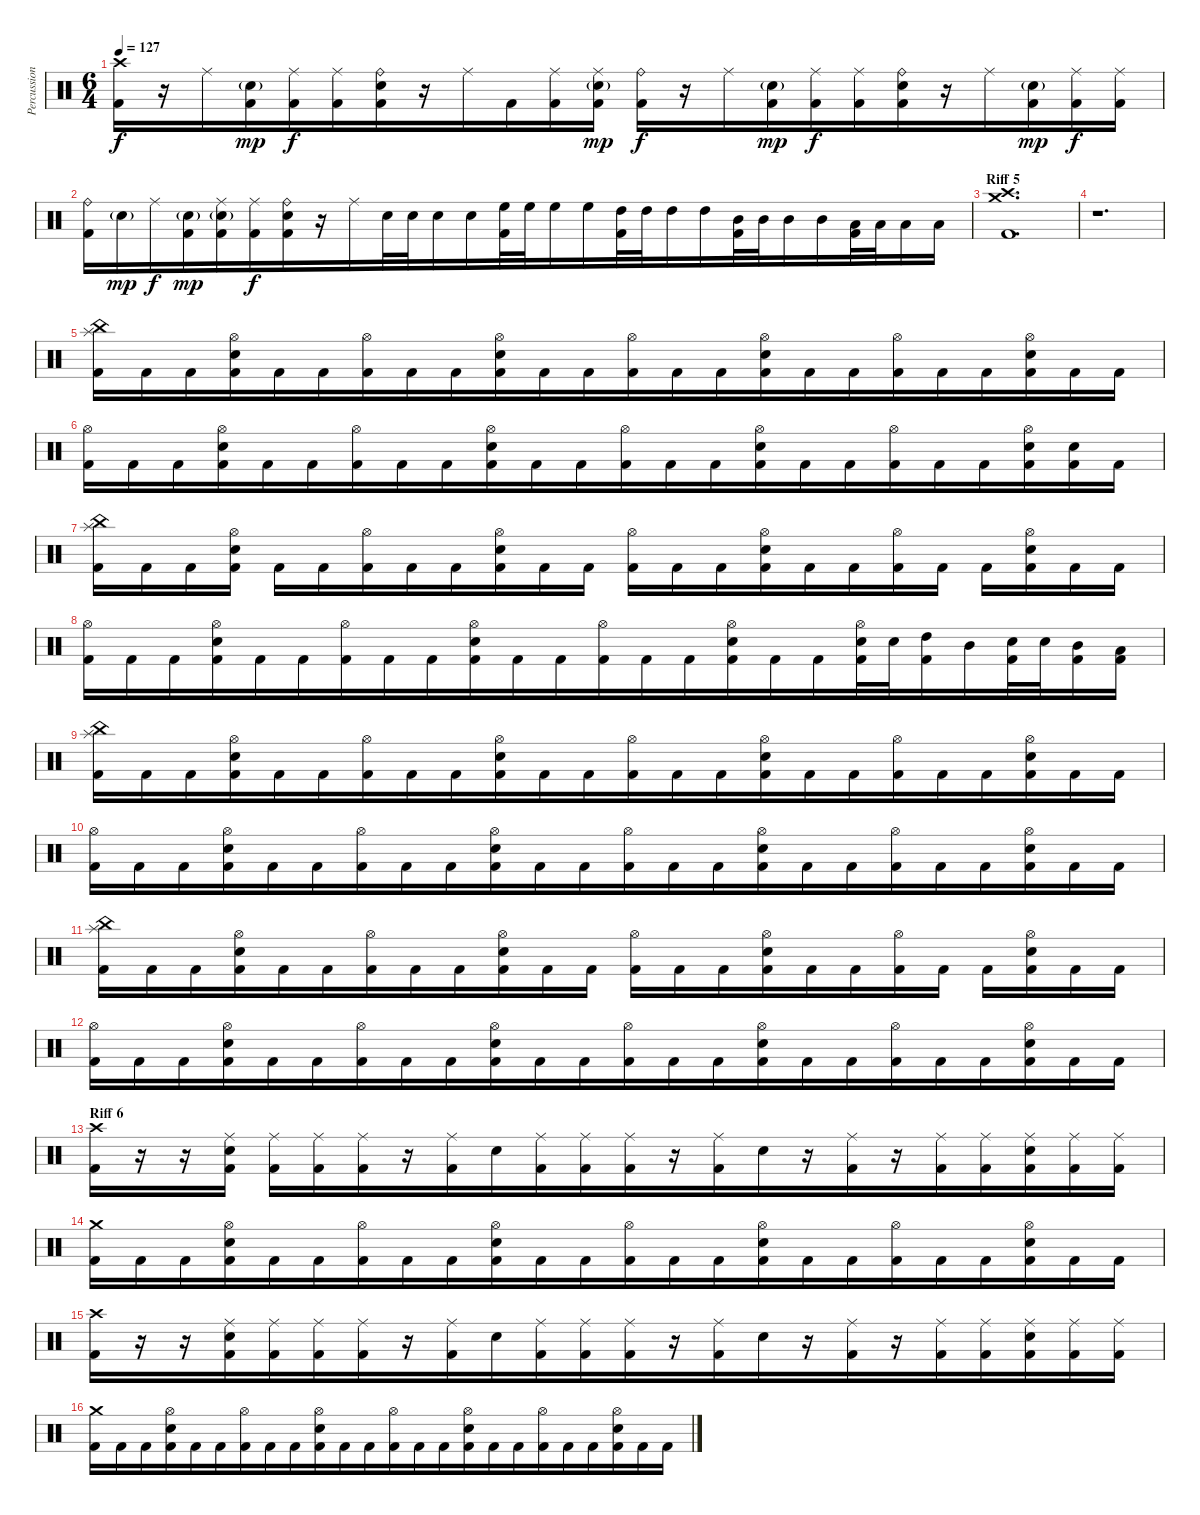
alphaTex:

\track ("Percussion" "Percussion") {instrument percussion}
\staff {score}
\articulation defaults
\ts (6 4)
\tempo 127
\clef neutral
\ks c
("Crash high (hit)" "Kick (hit) 2").16{dy f} r.16{beam merge} "Ride (middle)".16{beam merge} ("Electric Snare (hit)"{g} "Kick (hit) 2").16{dy mp beam merge} ("Ride (middle)" "Kick (hit) 2").16{dy f beam merge} ("Ride (middle)" "Kick (hit) 2").16{beam merge} ("Ride (bell)" "Electric Snare (hit)" "Kick (hit) 2").16{beam merge} r.16{beam merge} "Ride (middle)".16 "Kick (hit) 2".16{beam merge} ("Ride (middle)" "Kick (hit) 2").16{beam merge} ("Ride (middle)" "Electric Snare (hit)"{g} "Kick (hit) 2").16{dy mp} ("Ride (bell)" "Kick (hit) 2").16{dy f beam merge} r.16{beam merge} "Ride (middle)".16{beam merge} ("Electric Snare (hit)"{g} "Kick (hit) 2").16{dy mp beam merge} ("Ride (middle)" "Kick (hit) 2").16{dy f beam merge} ("Ride (middle)" "Kick (hit) 2").16{beam merge} ("Ride (bell)" "Electric Snare (hit)" "Kick (hit) 2").16{beam merge} r.16 "Ride (middle)".16{beam merge} ("Electric Snare (hit)"{g} "Kick (hit) 2").16{dy mp beam merge} ("Ride (middle)" "Kick (hit) 2").16{dy f beam merge} ("Ride (middle)" "Kick (hit) 2").16 |
("Ride (bell)" "Kick (hit) 2").16{beam merge} "Electric Snare (hit)"{g}.16{dy mp beam merge} "Ride (middle)".16{dy f beam merge} ("Electric Snare (hit)"{g} "Kick (hit) 2").16{dy mp beam merge} ("Ride (middle)" "Electric Snare (hit)"{g} "Kick (hit) 2").16{beam merge} ("Ride (middle)" "Kick (hit) 2").16{dy f beam merge} ("Ride (bell)" "Electric Snare (hit)" "Kick (hit) 2").16{beam merge} r.16{beam merge} "Ride (middle)".16{beam merge} "Electric Snare (hit)".32{beam merge} "Electric Snare (hit)".32{beam merge} "Electric Snare (hit)".16{beam merge} "Electric Snare (hit)".16{beam merge} ("High Floor Tom (hit)" "Kick (hit) 2").32{beam merge} "High Floor Tom (hit)".32{beam merge} "High Floor Tom (hit)".16{beam merge} "High Floor Tom (hit)".16{beam merge} ("High Tom (hit)" "Kick (hit) 2").32{beam merge} "High Tom (hit)".32{beam merge} "High Tom (hit)".16{beam merge} "High Tom (hit)".16{beam merge} ("Mid Tom (hit)" "Kick (hit) 2").32 "Mid Tom (hit)".32{beam merge} "Mid Tom (hit)".16{beam merge} "Mid Tom (hit)".16{beam merge} ("Low Tom (hit)" "Kick (hit) 2").32{beam merge} "Low Tom (hit)".32 "Low Floor Tom (hit)".16{beam merge} "Low Floor Tom (hit)".16 |
\section ("" "Riff 5")
("Crash medium (hit)" "Crash high (hit)" "Kick (hit) 2").1{d} |
r.1{d} |
("China (hit)" "Splash (hit)" "Kick (hit) 2").16{beam merge} "Kick (hit) 2".16{beam merge} "Kick (hit) 2".16{beam merge} ("Hi-Hat (open)" "Electric Snare (hit)" "Kick (hit) 2").16{beam merge} "Kick (hit) 2".16{beam merge} "Kick (hit) 2".16{beam merge} ("Hi-Hat (open)" "Kick (hit) 2").16{beam merge} "Kick (hit) 2".16{beam merge} "Kick (hit) 2".16{beam merge} ("Hi-Hat (open)" "Electric Snare (hit)" "Kick (hit) 2").16{beam merge} "Kick (hit) 2".16{beam merge} "Kick (hit) 2".16{beam merge} ("Hi-Hat (open)" "Kick (hit) 2").16{beam merge} "Kick (hit) 2".16{beam merge} "Kick (hit) 2".16{beam merge} ("Hi-Hat (open)" "Electric Snare (hit)" "Kick (hit) 2").16{beam merge} "Kick (hit) 2".16{beam merge} "Kick (hit) 2".16{beam merge} ("Hi-Hat (open)" "Kick (hit) 2").16{beam merge} "Kick (hit) 2".16{beam merge} "Kick (hit) 2".16{beam merge} ("Hi-Hat (open)" "Electric Snare (hit)" "Kick (hit) 2").16{beam merge} "Kick (hit) 2".16{beam merge} "Kick (hit) 2".16 |
("Hi-Hat (open)" "Kick (hit) 2").16{beam merge} "Kick (hit) 2".16{beam merge} "Kick (hit) 2".16{beam merge} ("Hi-Hat (open)" "Electric Snare (hit)" "Kick (hit) 2").16{beam merge} "Kick (hit) 2".16{beam merge} "Kick (hit) 2".16{beam merge} ("Hi-Hat (open)" "Kick (hit) 2").16{beam merge} "Kick (hit) 2".16{beam merge} "Kick (hit) 2".16 ("Hi-Hat (open)" "Electric Snare (hit)" "Kick (hit) 2").16{beam merge} "Kick (hit) 2".16{beam merge} "Kick (hit) 2".16{beam merge} ("Hi-Hat (open)" "Kick (hit) 2").16{beam merge} "Kick (hit) 2".16{beam merge} "Kick (hit) 2".16{beam merge} ("Hi-Hat (open)" "Electric Snare (hit)" "Kick (hit) 2").16{beam merge} "Kick (hit) 2".16 "Kick (hit) 2".16{beam merge} ("Hi-Hat (open)" "Kick (hit) 2").16{beam merge} "Kick (hit) 2".16{beam merge} "Kick (hit) 2".16{beam merge} ("Hi-Hat (open)" "Electric Snare (hit)" "Kick (hit) 2").16{beam merge} ("Electric Snare (hit)" "Kick (hit) 2").16{beam merge} "Kick (hit) 2".16 |
("China (hit)" "Splash (hit)" "Kick (hit) 2").16 "Kick (hit) 2".16 "Kick (hit) 2".16{beam merge} ("Hi-Hat (open)" "Electric Snare (hit)" "Kick (hit) 2").16 "Kick (hit) 2".16{beam merge} "Kick (hit) 2".16 ("Hi-Hat (open)" "Kick (hit) 2").16 "Kick (hit) 2".16{beam merge} "Kick (hit) 2".16 ("Hi-Hat (open)" "Electric Snare (hit)" "Kick (hit) 2").16 "Kick (hit) 2".16{beam merge} "Kick (hit) 2".16 ("Hi-Hat (open)" "Kick (hit) 2").16{beam merge} "Kick (hit) 2".16 "Kick (hit) 2".16 ("Hi-Hat (open)" "Electric Snare (hit)" "Kick (hit) 2").16{beam merge} "Kick (hit) 2".16 "Kick (hit) 2".16 ("Hi-Hat (open)" "Kick (hit) 2").16{beam merge} "Kick (hit) 2".16 "Kick (hit) 2".16{beam merge} ("Hi-Hat (open)" "Electric Snare (hit)" "Kick (hit) 2").16 "Kick (hit) 2".16 "Kick (hit) 2".16 |
("Hi-Hat (open)" "Kick (hit) 2").16{beam merge} "Kick (hit) 2".16{beam merge} "Kick (hit) 2".16{beam merge} ("Hi-Hat (open)" "Electric Snare (hit)" "Kick (hit) 2").16{beam merge} "Kick (hit) 2".16{beam merge} "Kick (hit) 2".16{beam merge} ("Hi-Hat (open)" "Kick (hit) 2").16{beam merge} "Kick (hit) 2".16{beam merge} "Kick (hit) 2".16{beam merge} ("Hi-Hat (open)" "Electric Snare (hit)" "Kick (hit) 2").16{beam merge} "Kick (hit) 2".16{beam merge} "Kick (hit) 2".16{beam merge} ("Hi-Hat (open)" "Kick (hit) 2").16{beam merge} "Kick (hit) 2".16{beam merge} "Kick (hit) 2".16 ("Hi-Hat (open)" "Electric Snare (hit)" "Kick (hit) 2").16{beam merge} "Kick (hit) 2".16{beam merge} "Kick (hit) 2".16{beam merge} ("Hi-Hat (open)" "Electric Snare (hit)" "Kick (hit) 2").32{beam merge} "Electric Snare (hit)".32{beam merge} ("High Tom (hit)" "Kick (hit) 2").16{beam merge} "Mid Tom (hit)".16{beam merge} ("Electric Snare (hit)" "Kick (hit) 2").32 "Electric Snare (hit)".32{beam merge} ("Mid Tom (hit)" "Kick (hit) 2").16{beam merge} ("Low Tom (hit)" "Kick (hit) 2").16 |
("China (hit)" "Splash (hit)" "Kick (hit) 2").16 "Kick (hit) 2".16{beam merge} "Kick (hit) 2".16{beam merge} ("Hi-Hat (open)" "Electric Snare (hit)" "Kick (hit) 2").16{beam merge} "Kick (hit) 2".16{beam merge} "Kick (hit) 2".16{beam merge} ("Hi-Hat (open)" "Kick (hit) 2").16{beam merge} "Kick (hit) 2".16{beam merge} "Kick (hit) 2".16{beam merge} ("Hi-Hat (open)" "Electric Snare (hit)" "Kick (hit) 2").16{beam merge} "Kick (hit) 2".16{beam merge} "Kick (hit) 2".16{beam merge} ("Hi-Hat (open)" "Kick (hit) 2").16{beam merge} "Kick (hit) 2".16{beam merge} "Kick (hit) 2".16{beam merge} ("Hi-Hat (open)" "Electric Snare (hit)" "Kick (hit) 2").16{beam merge} "Kick (hit) 2".16{beam merge} "Kick (hit) 2".16{beam merge} ("Hi-Hat (open)" "Kick (hit) 2").16{beam merge} "Kick (hit) 2".16{beam merge} "Kick (hit) 2".16{beam merge} ("Hi-Hat (open)" "Electric Snare (hit)" "Kick (hit) 2").16{beam merge} "Kick (hit) 2".16{beam merge} "Kick (hit) 2".16 |
("Hi-Hat (open)" "Kick (hit) 2").16{beam merge} "Kick (hit) 2".16{beam merge} "Kick (hit) 2".16{beam merge} ("Hi-Hat (open)" "Electric Snare (hit)" "Kick (hit) 2").16{beam merge} "Kick (hit) 2".16{beam merge} "Kick (hit) 2".16 ("Hi-Hat (open)" "Kick (hit) 2").16{beam merge} "Kick (hit) 2".16{beam merge} "Kick (hit) 2".16{beam merge} ("Hi-Hat (open)" "Electric Snare (hit)" "Kick (hit) 2").16{beam merge} "Kick (hit) 2".16{beam merge} "Kick (hit) 2".16{beam merge} ("Hi-Hat (open)" "Kick (hit) 2").16{beam merge} "Kick (hit) 2".16{beam merge} "Kick (hit) 2".16{beam merge} ("Hi-Hat (open)" "Electric Snare (hit)" "Kick (hit) 2").16{beam merge} "Kick (hit) 2".16{beam merge} "Kick (hit) 2".16{beam merge} ("Hi-Hat (open)" "Kick (hit) 2").16{beam merge} "Kick (hit) 2".16{beam merge} "Kick (hit) 2".16{beam merge} ("Hi-Hat (open)" "Electric Snare (hit)" "Kick (hit) 2").16 "Kick (hit) 2".16{beam merge} "Kick (hit) 2".16 |
("China (hit)" "Splash (hit)" "Kick (hit) 2").16{beam merge} "Kick (hit) 2".16 "Kick (hit) 2".16{beam merge} ("Hi-Hat (open)" "Electric Snare (hit)" "Kick (hit) 2").16{beam merge} "Kick (hit) 2".16{beam merge} "Kick (hit) 2".16{beam merge} ("Hi-Hat (open)" "Kick (hit) 2").16{beam merge} "Kick (hit) 2".16{beam merge} "Kick (hit) 2".16 ("Hi-Hat (open)" "Electric Snare (hit)" "Kick (hit) 2").16{beam merge} "Kick (hit) 2".16{beam merge} "Kick (hit) 2".16 ("Hi-Hat (open)" "Kick (hit) 2").16{beam merge} "Kick (hit) 2".16{beam merge} "Kick (hit) 2".16{beam merge} ("Hi-Hat (open)" "Electric Snare (hit)" "Kick (hit) 2").16{beam merge} "Kick (hit) 2".16{beam merge} "Kick (hit) 2".16{beam merge} ("Hi-Hat (open)" "Kick (hit) 2").16{beam merge} "Kick (hit) 2".16 "Kick (hit) 2".16{beam merge} ("Hi-Hat (open)" "Electric Snare (hit)" "Kick (hit) 2").16{beam merge} "Kick (hit) 2".16 "Kick (hit) 2".16 |
("Hi-Hat (open)" "Kick (hit) 2").16{beam merge} "Kick (hit) 2".16 "Kick (hit) 2".16{beam merge} ("Hi-Hat (open)" "Electric Snare (hit)" "Kick (hit) 2").16{beam merge} "Kick (hit) 2".16{beam merge} "Kick (hit) 2".16{beam merge} ("Hi-Hat (open)" "Kick (hit) 2").16{beam merge} "Kick (hit) 2".16{beam merge} "Kick (hit) 2".16{beam merge} ("Hi-Hat (open)" "Electric Snare (hit)" "Kick (hit) 2").16 "Kick (hit) 2".16{beam merge} "Kick (hit) 2".16{beam merge} ("Hi-Hat (open)" "Kick (hit) 2").16{beam merge} "Kick (hit) 2".16{beam merge} "Kick (hit) 2".16{beam merge} ("Hi-Hat (open)" "Electric Snare (hit)" "Kick (hit) 2").16{beam merge} "Kick (hit) 2".16{beam merge} "Kick (hit) 2".16{beam merge} ("Hi-Hat (open)" "Kick (hit) 2").16{beam merge} "Kick (hit) 2".16{beam merge} "Kick (hit) 2".16{beam merge} ("Hi-Hat (open)" "Electric Snare (hit)" "Kick (hit) 2").16{beam merge} "Kick (hit) 2".16{beam merge} "Kick (hit) 2".16 |
\section ("" "Riff 6")
("Crash high (hit)" "Kick (hit) 2").16{beam merge} r.16{beam merge} r.16{beam merge} ("Ride (middle)" "Electric Snare (hit)" "Kick (hit) 2").16 ("Ride (middle)" "Kick (hit) 2").16{beam merge} ("Ride (middle)" "Kick (hit) 2").16{beam merge} ("Ride (middle)" "Kick (hit) 2").16{beam merge} r.16{beam merge} ("Ride (middle)" "Kick (hit) 2").16{beam merge} "Electric Snare (hit)".16{beam merge} ("Ride (middle)" "Kick (hit) 2").16{beam merge} ("Ride (middle)" "Kick (hit) 2").16{beam merge} ("Ride (middle)" "Kick (hit) 2").16{beam merge} r.16{beam merge} ("Ride (middle)" "Kick (hit) 2").16{beam merge} "Electric Snare (hit)".16{beam merge} r.16{beam merge} ("Ride (middle)" "Kick (hit) 2").16{beam merge} r.16{beam merge} ("Ride (middle)" "Kick (hit) 2").16{beam merge} ("Ride (middle)" "Kick (hit) 2").16{beam merge} ("Ride (middle)" "Electric Snare (hit)" "Kick (hit) 2").16{beam merge} ("Ride (middle)" "Kick (hit) 2").16{beam merge} ("Ride (middle)" "Kick (hit) 2").16 |
("Crash medium (hit)" "Kick (hit) 2").16{beam merge} "Kick (hit) 2".16{beam merge} "Kick (hit) 2".16{beam merge} ("Hi-Hat (open)" "Electric Snare (hit)" "Kick (hit) 2").16{beam merge} "Kick (hit) 2".16{beam merge} "Kick (hit) 2".16{beam merge} ("Hi-Hat (open)" "Kick (hit) 2").16{beam merge} "Kick (hit) 2".16{beam merge} "Kick (hit) 2".16 ("Hi-Hat (open)" "Electric Snare (hit)" "Kick (hit) 2").16{beam merge} "Kick (hit) 2".16{beam merge} "Kick (hit) 2".16{beam merge} ("Hi-Hat (open)" "Kick (hit) 2").16{beam merge} "Kick (hit) 2".16{beam merge} "Kick (hit) 2".16{beam merge} ("Hi-Hat (open)" "Electric Snare (hit)" "Kick (hit) 2").16{beam merge} "Kick (hit) 2".16{beam merge} "Kick (hit) 2".16{beam merge} ("Hi-Hat (open)" "Kick (hit) 2").16{beam merge} "Kick (hit) 2".16{beam merge} "Kick (hit) 2".16{beam merge} ("Hi-Hat (open)" "Electric Snare (hit)" "Kick (hit) 2").16{beam merge} "Kick (hit) 2".16{beam merge} "Kick (hit) 2".16 |
("Crash high (hit)" "Kick (hit) 2").16{beam merge} r.16{beam merge} r.16{beam merge} ("Ride (middle)" "Electric Snare (hit)" "Kick (hit) 2").16{beam merge} ("Ride (middle)" "Kick (hit) 2").16{beam merge} ("Ride (middle)" "Kick (hit) 2").16{beam merge} ("Ride (middle)" "Kick (hit) 2").16{beam merge} r.16 ("Ride (middle)" "Kick (hit) 2").16{beam merge} "Electric Snare (hit)".16{beam merge} ("Ride (middle)" "Kick (hit) 2").16{beam merge} ("Ride (middle)" "Kick (hit) 2").16{beam merge} ("Ride (middle)" "Kick (hit) 2").16{beam merge} r.16{beam merge} ("Ride (middle)" "Kick (hit) 2").16{beam merge} "Electric Snare (hit)".16{beam merge} r.16{beam merge} ("Ride (middle)" "Kick (hit) 2").16{beam merge} r.16{beam merge} ("Ride (middle)" "Kick (hit) 2").16{beam merge} ("Ride (middle)" "Kick (hit) 2").16{beam merge} ("Ride (middle)" "Electric Snare (hit)" "Kick (hit) 2").16{beam merge} ("Ride (middle)" "Kick (hit) 2").16{beam merge} ("Ride (middle)" "Kick (hit) 2").16 |
("Crash medium (hit)" "Kick (hit) 2").16{beam merge} "Kick (hit) 2".16{beam merge} "Kick (hit) 2".16 ("Hi-Hat (open)" "Electric Snare (hit)" "Kick (hit) 2").16{beam merge} "Kick (hit) 2".16{beam merge} "Kick (hit) 2".16 ("Hi-Hat (open)" "Kick (hit) 2").16{beam merge} "Kick (hit) 2".16{beam merge} "Kick (hit) 2".16{beam merge} ("Hi-Hat (open)" "Electric Snare (hit)" "Kick (hit) 2").16{beam merge} "Kick (hit) 2".16{beam merge} "Kick (hit) 2".16{beam merge} ("Hi-Hat (open)" "Kick (hit) 2").16{beam merge} "Kick (hit) 2".16{beam merge} "Kick (hit) 2".16{beam merge} ("Hi-Hat (open)" "Electric Snare (hit)" "Kick (hit) 2").16{beam merge} "Kick (hit) 2".16{beam merge} "Kick (hit) 2".16{beam merge} ("Hi-Hat (open)" "Kick (hit) 2").16{beam merge} "Kick (hit) 2".16{beam merge} "Kick (hit) 2".16{beam merge} ("Hi-Hat (open)" "Electric Snare (hit)" "Kick (hit) 2").16{beam merge} "Kick (hit) 2".16{beam merge} "Kick (hit) 2".16
